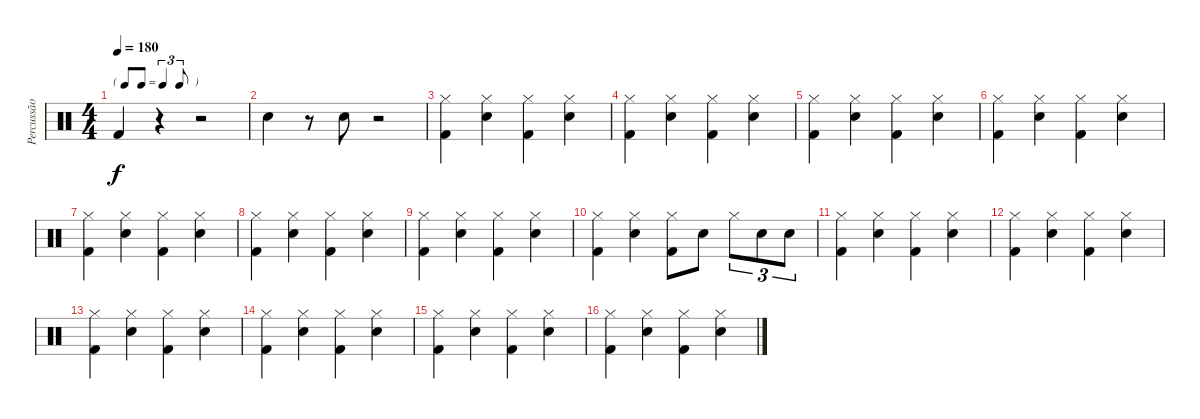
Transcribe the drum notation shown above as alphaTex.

\track ("Percussão" "Percussão") {instrument percussion}
\staff {score}
\articulation defaults
\ts (4 4)
\tf triplet8th
\tempo 180
\clef neutral
\ks c "Kick (hit) 2".4{dy f}
r.4 r.2 |
"Snare (hit) 2".4 r.8 "Snare (hit) 2".8 r.2 |
("Hi-Hat (closed)" "Kick (hit) 2").4 ("Hi-Hat (closed)" "Snare (hit) 2").4 ("Hi-Hat (closed)" "Kick (hit) 2").4 ("Hi-Hat (closed)" "Snare (hit) 2").4 |
("Hi-Hat (closed)" "Kick (hit) 2").4 ("Hi-Hat (closed)" "Snare (hit) 2").4 ("Hi-Hat (closed)" "Kick (hit) 2").4 ("Hi-Hat (closed)" "Snare (hit) 2").4 |
("Hi-Hat (closed)" "Kick (hit) 2").4 ("Hi-Hat (closed)" "Snare (hit) 2").4 ("Hi-Hat (closed)" "Kick (hit) 2").4 ("Hi-Hat (closed)" "Snare (hit) 2").4 |
("Hi-Hat (closed)" "Kick (hit) 2").4 ("Hi-Hat (closed)" "Snare (hit) 2").4 ("Hi-Hat (closed)" "Kick (hit) 2").4 ("Hi-Hat (closed)" "Snare (hit) 2").4 |
("Hi-Hat (closed)" "Kick (hit) 2").4 ("Hi-Hat (closed)" "Snare (hit) 2").4 ("Hi-Hat (closed)" "Kick (hit) 2").4 ("Hi-Hat (closed)" "Snare (hit) 2").4 |
("Hi-Hat (closed)" "Kick (hit) 2").4 ("Hi-Hat (closed)" "Snare (hit) 2").4 ("Hi-Hat (closed)" "Kick (hit) 2").4 ("Hi-Hat (closed)" "Snare (hit) 2").4 |
("Hi-Hat (closed)" "Kick (hit) 2").4 ("Hi-Hat (closed)" "Snare (hit) 2").4 ("Hi-Hat (closed)" "Kick (hit) 2").4 ("Hi-Hat (closed)" "Snare (hit) 2").4 |
("Hi-Hat (closed)" "Kick (hit) 2").4 ("Hi-Hat (closed)" "Snare (hit) 2").4 ("Hi-Hat (closed)" "Kick (hit) 2").8 "Snare (hit) 2".8 "Hi-Hat (closed)".8{tu (3 2)} "Snare (hit) 2".8{tu (3 2)} "Snare (hit) 2".8{tu (3 2)} |
("Hi-Hat (closed)" "Kick (hit) 2").4 ("Hi-Hat (closed)" "Snare (hit) 2").4 ("Hi-Hat (closed)" "Kick (hit) 2").4 ("Hi-Hat (closed)" "Snare (hit) 2").4 |
("Hi-Hat (closed)" "Kick (hit) 2").4 ("Hi-Hat (closed)" "Snare (hit) 2").4 ("Hi-Hat (closed)" "Kick (hit) 2").4 ("Hi-Hat (closed)" "Snare (hit) 2").4 |
("Hi-Hat (closed)" "Kick (hit) 2").4 ("Hi-Hat (closed)" "Snare (hit) 2").4 ("Hi-Hat (closed)" "Kick (hit) 2").4 ("Hi-Hat (closed)" "Snare (hit) 2").4 |
("Hi-Hat (closed)" "Kick (hit) 2").4 ("Hi-Hat (closed)" "Snare (hit) 2").4 ("Hi-Hat (closed)" "Kick (hit) 2").4 ("Hi-Hat (closed)" "Snare (hit) 2").4 |
("Hi-Hat (closed)" "Kick (hit) 2").4 ("Hi-Hat (closed)" "Snare (hit) 2").4 ("Hi-Hat (closed)" "Kick (hit) 2").4 ("Hi-Hat (closed)" "Snare (hit) 2").4 |
("Hi-Hat (closed)" "Kick (hit) 2").4 ("Hi-Hat (closed)" "Snare (hit) 2").4 ("Hi-Hat (closed)" "Kick (hit) 2").4 ("Hi-Hat (closed)" "Snare (hit) 2").4
